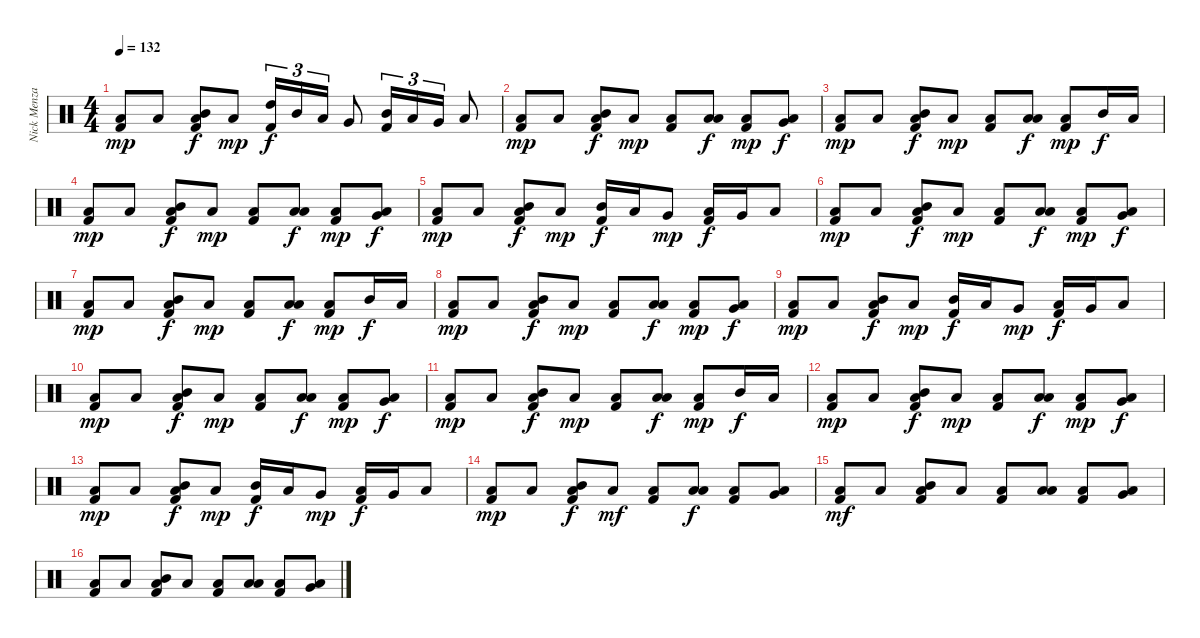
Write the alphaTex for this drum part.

\track ("Nick Menza (Drums)" "Nick Menza") {instrument percussion}
\staff {score}
\articulation defaults
\ts (4 4)
\tempo 132
\clef neutral
\ks c
("Low Floor Tom (hit)" "Kick (hit) 2").8{dy mp} "Low Floor Tom (hit)".8 ("Low Floor Tom (hit)" "Mid Tom (hit)" "Kick (hit) 2").8{dy f} "Low Floor Tom (hit)".8{dy mp} ("High Tom (hit)" "Kick (hit) 2").16{tu (3 2) dy f} "Mid Tom (hit)".16{tu (3 2)} "Low Tom (hit)".16{tu (3 2)} "Very Low Tom (hit)".8 ("Mid Tom (hit)" "Kick (hit) 2").16{tu (3 2)} "Low Tom (hit)".16{tu (3 2)} "Very Low Tom (hit)".16{tu (3 2)} "Low Floor Tom (hit)".8 |
("Low Floor Tom (hit)" "Kick (hit) 2").8{dy mp} "Low Floor Tom (hit)".8 ("Low Floor Tom (hit)" "Mid Tom (hit)" "Kick (hit) 2").8{dy f} "Low Floor Tom (hit)".8{dy mp} ("Low Floor Tom (hit)" "Kick (hit) 2").8 ("Low Floor Tom (hit)" "Low Tom (hit)").8{dy f} ("Low Floor Tom (hit)" "Kick (hit) 2").8{dy mp} ("Low Floor Tom (hit)" "Very Low Tom (hit)").8{dy f} |
("Low Floor Tom (hit)" "Kick (hit) 2").8{dy mp} "Low Floor Tom (hit)".8 ("Low Floor Tom (hit)" "Mid Tom (hit)" "Kick (hit) 2").8{dy f} "Low Floor Tom (hit)".8{dy mp} ("Low Floor Tom (hit)" "Kick (hit) 2").8 ("Low Floor Tom (hit)" "Low Tom (hit)").8{dy f} ("Low Floor Tom (hit)" "Kick (hit) 2").8{dy mp} "Mid Tom (hit)".16{dy f} "Low Tom (hit)".16 |
("Low Floor Tom (hit)" "Kick (hit) 2").8{dy mp} "Low Floor Tom (hit)".8 ("Low Floor Tom (hit)" "Mid Tom (hit)" "Kick (hit) 2").8{dy f} "Low Floor Tom (hit)".8{dy mp} ("Low Floor Tom (hit)" "Kick (hit) 2").8 ("Low Floor Tom (hit)" "Low Tom (hit)").8{dy f} ("Low Floor Tom (hit)" "Kick (hit) 2").8{dy mp} ("Low Floor Tom (hit)" "Very Low Tom (hit)").8{dy f} |
("Low Floor Tom (hit)" "Kick (hit) 2").8{dy mp} "Low Floor Tom (hit)".8 ("Low Floor Tom (hit)" "Mid Tom (hit)" "Kick (hit) 2").8{dy f} "Low Floor Tom (hit)".8{dy mp} ("Mid Tom (hit)" "Kick (hit) 2").16{dy f} "Low Tom (hit)".16 "Very Low Tom (hit)".8{dy mp} ("Low Tom (hit)" "Kick (hit) 2").16{dy f} "Very Low Tom (hit)".16 "Low Floor Tom (hit)".8 |
("Low Floor Tom (hit)" "Kick (hit) 2").8{dy mp} "Low Floor Tom (hit)".8 ("Low Floor Tom (hit)" "Mid Tom (hit)" "Kick (hit) 2").8{dy f} "Low Floor Tom (hit)".8{dy mp} ("Low Floor Tom (hit)" "Kick (hit) 2").8 ("Low Floor Tom (hit)" "Low Tom (hit)").8{dy f} ("Low Floor Tom (hit)" "Kick (hit) 2").8{dy mp} ("Low Floor Tom (hit)" "Very Low Tom (hit)").8{dy f} |
("Low Floor Tom (hit)" "Kick (hit) 2").8{dy mp} "Low Floor Tom (hit)".8 ("Low Floor Tom (hit)" "Mid Tom (hit)" "Kick (hit) 2").8{dy f} "Low Floor Tom (hit)".8{dy mp} ("Low Floor Tom (hit)" "Kick (hit) 2").8 ("Low Floor Tom (hit)" "Low Tom (hit)").8{dy f} ("Low Floor Tom (hit)" "Kick (hit) 2").8{dy mp} "Mid Tom (hit)".16{dy f} "Low Tom (hit)".16 |
("Low Floor Tom (hit)" "Kick (hit) 2").8{dy mp} "Low Floor Tom (hit)".8 ("Low Floor Tom (hit)" "Mid Tom (hit)" "Kick (hit) 2").8{dy f} "Low Floor Tom (hit)".8{dy mp} ("Low Floor Tom (hit)" "Kick (hit) 2").8 ("Low Floor Tom (hit)" "Low Tom (hit)").8{dy f} ("Low Floor Tom (hit)" "Kick (hit) 2").8{dy mp} ("Low Floor Tom (hit)" "Very Low Tom (hit)").8{dy f} |
("Low Floor Tom (hit)" "Kick (hit) 2").8{dy mp} "Low Floor Tom (hit)".8 ("Low Floor Tom (hit)" "Mid Tom (hit)" "Kick (hit) 2").8{dy f} "Low Floor Tom (hit)".8{dy mp} ("Mid Tom (hit)" "Kick (hit) 2").16{dy f} "Low Tom (hit)".16 "Very Low Tom (hit)".8{dy mp} ("Low Tom (hit)" "Kick (hit) 2").16{dy f} "Very Low Tom (hit)".16 "Low Floor Tom (hit)".8 |
("Low Floor Tom (hit)" "Kick (hit) 2").8{dy mp} "Low Floor Tom (hit)".8 ("Low Floor Tom (hit)" "Mid Tom (hit)" "Kick (hit) 2").8{dy f} "Low Floor Tom (hit)".8{dy mp} ("Low Floor Tom (hit)" "Kick (hit) 2").8 ("Low Floor Tom (hit)" "Low Tom (hit)").8{dy f} ("Low Floor Tom (hit)" "Kick (hit) 2").8{dy mp} ("Low Floor Tom (hit)" "Very Low Tom (hit)").8{dy f} |
("Low Floor Tom (hit)" "Kick (hit) 2").8{dy mp} "Low Floor Tom (hit)".8 ("Low Floor Tom (hit)" "Mid Tom (hit)" "Kick (hit) 2").8{dy f} "Low Floor Tom (hit)".8{dy mp} ("Low Floor Tom (hit)" "Kick (hit) 2").8 ("Low Floor Tom (hit)" "Low Tom (hit)").8{dy f} ("Low Floor Tom (hit)" "Kick (hit) 2").8{dy mp} "Mid Tom (hit)".16{dy f} "Low Tom (hit)".16 |
("Low Floor Tom (hit)" "Kick (hit) 2").8{dy mp} "Low Floor Tom (hit)".8 ("Low Floor Tom (hit)" "Mid Tom (hit)" "Kick (hit) 2").8{dy f} "Low Floor Tom (hit)".8{dy mp} ("Low Floor Tom (hit)" "Kick (hit) 2").8 ("Low Floor Tom (hit)" "Low Tom (hit)").8{dy f} ("Low Floor Tom (hit)" "Kick (hit) 2").8{dy mp} ("Low Floor Tom (hit)" "Very Low Tom (hit)").8{dy f} |
("Low Floor Tom (hit)" "Kick (hit) 2").8{dy mp} "Low Floor Tom (hit)".8 ("Low Floor Tom (hit)" "Mid Tom (hit)" "Kick (hit) 2").8{dy f} "Low Floor Tom (hit)".8{dy mp} ("Mid Tom (hit)" "Kick (hit) 2").16{dy f} "Low Tom (hit)".16 "Very Low Tom (hit)".8{dy mp} ("Low Tom (hit)" "Kick (hit) 2").16{dy f} "Very Low Tom (hit)".16 "Low Floor Tom (hit)".8 |
("Low Floor Tom (hit)" "Kick (hit) 2").8{dy mp} "Low Floor Tom (hit)".8 ("Low Floor Tom (hit)" "Mid Tom (hit)" "Kick (hit) 2").8{dy f} "Low Floor Tom (hit)".8{dy mf} ("Low Floor Tom (hit)" "Kick (hit) 2").8 ("Low Floor Tom (hit)" "Low Tom (hit)").8{dy f} ("Low Floor Tom (hit)" "Kick (hit) 2").8 ("Low Floor Tom (hit)" "Very Low Tom (hit)").8 |
("Low Floor Tom (hit)" "Kick (hit) 2").8{dy mf} "Low Floor Tom (hit)".8 ("Low Floor Tom (hit)" "Mid Tom (hit)" "Kick (hit) 2").8 "Low Floor Tom (hit)".8 ("Low Floor Tom (hit)" "Kick (hit) 2").8 ("Low Floor Tom (hit)" "Low Tom (hit)").8 ("Low Floor Tom (hit)" "Kick (hit) 2").8 ("Low Floor Tom (hit)" "Very Low Tom (hit)").8 |
("Low Floor Tom (hit)" "Kick (hit) 2").8 "Low Floor Tom (hit)".8 ("Low Floor Tom (hit)" "Mid Tom (hit)" "Kick (hit) 2").8 "Low Floor Tom (hit)".8 ("Low Floor Tom (hit)" "Kick (hit) 2").8 ("Low Floor Tom (hit)" "Low Tom (hit)").8 ("Low Floor Tom (hit)" "Kick (hit) 2").8 ("Low Floor Tom (hit)" "Very Low Tom (hit)").8
